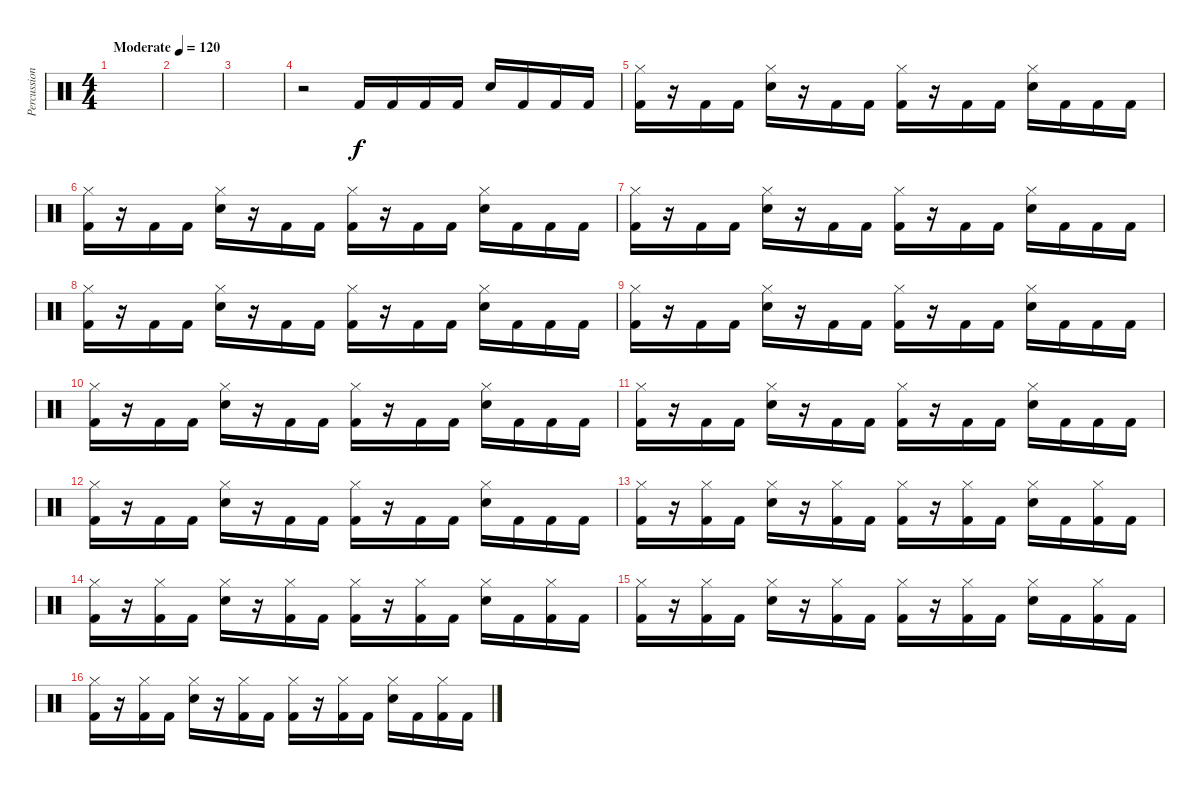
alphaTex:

\track ("Percussions" "Percussion") {instrument percussion}
\staff {score}
\articulation defaults
\ts (4 4)
\tempo (120 "Moderate")
\clef neutral
\ks c
|
|
|
r.2 "Kick (hit) 2".16 "Kick (hit) 2".16 "Kick (hit) 2".16 "Kick (hit) 2".16 "Snare (hit) 2".16 "Kick (hit) 2".16 "Kick (hit) 2".16 "Kick (hit) 2".16 |
("Hi-Hat (closed)" "Kick (hit) 2").16 r.16 "Kick (hit) 2".16 "Kick (hit) 2".16 ("Hi-Hat (closed)" "Snare (hit) 2").16 r.16 "Kick (hit) 2".16 "Kick (hit) 2".16 ("Hi-Hat (closed)" "Kick (hit) 2").16 r.16 "Kick (hit) 2".16 "Kick (hit) 2".16 ("Hi-Hat (closed)" "Snare (hit) 2").16 "Kick (hit) 2".16 "Kick (hit) 2".16 "Kick (hit) 2".16 |
("Hi-Hat (closed)" "Kick (hit) 2").16 r.16 "Kick (hit) 2".16 "Kick (hit) 2".16 ("Hi-Hat (closed)" "Snare (hit) 2").16 r.16 "Kick (hit) 2".16 "Kick (hit) 2".16 ("Hi-Hat (closed)" "Kick (hit) 2").16 r.16 "Kick (hit) 2".16 "Kick (hit) 2".16 ("Hi-Hat (closed)" "Snare (hit) 2").16 "Kick (hit) 2".16 "Kick (hit) 2".16 "Kick (hit) 2".16 |
("Hi-Hat (closed)" "Kick (hit) 2").16 r.16 "Kick (hit) 2".16 "Kick (hit) 2".16 ("Hi-Hat (closed)" "Snare (hit) 2").16 r.16 "Kick (hit) 2".16 "Kick (hit) 2".16 ("Hi-Hat (closed)" "Kick (hit) 2").16 r.16 "Kick (hit) 2".16 "Kick (hit) 2".16 ("Hi-Hat (closed)" "Snare (hit) 2").16 "Kick (hit) 2".16 "Kick (hit) 2".16 "Kick (hit) 2".16 |
("Hi-Hat (closed)" "Kick (hit) 2").16 r.16 "Kick (hit) 2".16 "Kick (hit) 2".16 ("Hi-Hat (closed)" "Snare (hit) 2").16 r.16 "Kick (hit) 2".16 "Kick (hit) 2".16 ("Hi-Hat (closed)" "Kick (hit) 2").16 r.16 "Kick (hit) 2".16 "Kick (hit) 2".16 ("Hi-Hat (closed)" "Snare (hit) 2").16 "Kick (hit) 2".16 "Kick (hit) 2".16 "Kick (hit) 2".16 |
("Hi-Hat (closed)" "Kick (hit) 2").16 r.16 "Kick (hit) 2".16 "Kick (hit) 2".16 ("Hi-Hat (closed)" "Snare (hit) 2").16 r.16 "Kick (hit) 2".16 "Kick (hit) 2".16 ("Hi-Hat (closed)" "Kick (hit) 2").16 r.16 "Kick (hit) 2".16 "Kick (hit) 2".16 ("Hi-Hat (closed)" "Snare (hit) 2").16 "Kick (hit) 2".16 "Kick (hit) 2".16 "Kick (hit) 2".16 |
("Hi-Hat (closed)" "Kick (hit) 2").16 r.16 "Kick (hit) 2".16 "Kick (hit) 2".16 ("Hi-Hat (closed)" "Snare (hit) 2").16 r.16 "Kick (hit) 2".16 "Kick (hit) 2".16 ("Hi-Hat (closed)" "Kick (hit) 2").16 r.16 "Kick (hit) 2".16 "Kick (hit) 2".16 ("Hi-Hat (closed)" "Snare (hit) 2").16 "Kick (hit) 2".16 "Kick (hit) 2".16 "Kick (hit) 2".16 |
("Hi-Hat (closed)" "Kick (hit) 2").16 r.16 "Kick (hit) 2".16 "Kick (hit) 2".16 ("Hi-Hat (closed)" "Snare (hit) 2").16 r.16 "Kick (hit) 2".16 "Kick (hit) 2".16 ("Hi-Hat (closed)" "Kick (hit) 2").16 r.16 "Kick (hit) 2".16 "Kick (hit) 2".16 ("Hi-Hat (closed)" "Snare (hit) 2").16 "Kick (hit) 2".16 "Kick (hit) 2".16 "Kick (hit) 2".16 |
("Hi-Hat (closed)" "Kick (hit) 2").16 r.16 "Kick (hit) 2".16 "Kick (hit) 2".16 ("Hi-Hat (closed)" "Snare (hit) 2").16 r.16 "Kick (hit) 2".16 "Kick (hit) 2".16 ("Hi-Hat (closed)" "Kick (hit) 2").16 r.16 "Kick (hit) 2".16 "Kick (hit) 2".16 ("Hi-Hat (closed)" "Snare (hit) 2").16 "Kick (hit) 2".16 "Kick (hit) 2".16 "Kick (hit) 2".16 |
("Hi-Hat (closed)" "Kick (hit) 2").16 r.16 ("Hi-Hat (closed)" "Kick (hit) 2").16 "Kick (hit) 2".16 ("Hi-Hat (closed)" "Snare (hit) 2").16 r.16 ("Hi-Hat (closed)" "Kick (hit) 2").16 "Kick (hit) 2".16 ("Hi-Hat (closed)" "Kick (hit) 2").16 r.16 ("Hi-Hat (closed)" "Kick (hit) 2").16 "Kick (hit) 2".16 ("Hi-Hat (closed)" "Snare (hit) 2").16 "Kick (hit) 2".16 ("Hi-Hat (closed)" "Kick (hit) 2").16 "Kick (hit) 2".16 |
("Hi-Hat (closed)" "Kick (hit) 2").16 r.16 ("Hi-Hat (closed)" "Kick (hit) 2").16 "Kick (hit) 2".16 ("Hi-Hat (closed)" "Snare (hit) 2").16 r.16 ("Hi-Hat (closed)" "Kick (hit) 2").16 "Kick (hit) 2".16 ("Hi-Hat (closed)" "Kick (hit) 2").16 r.16 ("Hi-Hat (closed)" "Kick (hit) 2").16 "Kick (hit) 2".16 ("Hi-Hat (closed)" "Snare (hit) 2").16 "Kick (hit) 2".16 ("Hi-Hat (closed)" "Kick (hit) 2").16 "Kick (hit) 2".16 |
("Hi-Hat (closed)" "Kick (hit) 2").16 r.16 ("Hi-Hat (closed)" "Kick (hit) 2").16 "Kick (hit) 2".16 ("Hi-Hat (closed)" "Snare (hit) 2").16 r.16 ("Hi-Hat (closed)" "Kick (hit) 2").16 "Kick (hit) 2".16 ("Hi-Hat (closed)" "Kick (hit) 2").16 r.16 ("Hi-Hat (closed)" "Kick (hit) 2").16 "Kick (hit) 2".16 ("Hi-Hat (closed)" "Snare (hit) 2").16 "Kick (hit) 2".16 ("Hi-Hat (closed)" "Kick (hit) 2").16 "Kick (hit) 2".16 |
("Hi-Hat (closed)" "Kick (hit) 2").16 r.16 ("Hi-Hat (closed)" "Kick (hit) 2").16 "Kick (hit) 2".16 ("Hi-Hat (closed)" "Snare (hit) 2").16 r.16 ("Hi-Hat (closed)" "Kick (hit) 2").16 "Kick (hit) 2".16 ("Hi-Hat (closed)" "Kick (hit) 2").16 r.16 ("Hi-Hat (closed)" "Kick (hit) 2").16 "Kick (hit) 2".16 ("Hi-Hat (closed)" "Snare (hit) 2").16 "Kick (hit) 2".16 ("Hi-Hat (closed)" "Kick (hit) 2").16 "Kick (hit) 2".16
